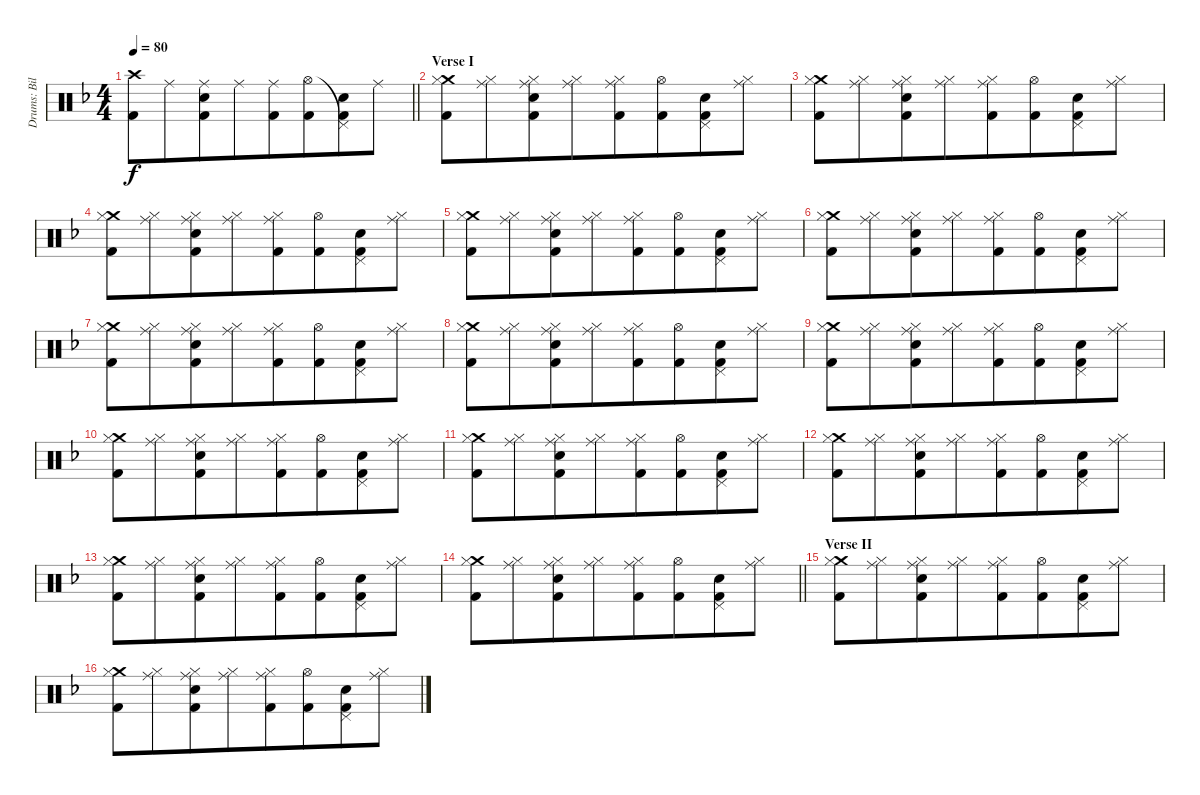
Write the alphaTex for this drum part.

\track ("Drums: Bill" "Drums: Bil") {instrument percussion}
\staff {score}
\articulation defaults
\ts (4 4)
\tempo 80
\clef neutral
\barLineRight lightlight
\ks f
("Crash high (hit)" "Kick (hit) 2").8{dy f} "Ride (middle)".8{beam merge} ("Ride (middle)" "Snare (hit) 2" "Kick (hit) 2").8 "Ride (middle)".8{beam merge} ("Ride (middle)" "Kick (hit) 2").8 ("Hi-Hat (open)" "Kick (hit) 2").8{beam merge} ("Pedal Hi-Hat (hit)"{t} "Snare (hit) 2" "Kick (hit) 2").8 "Ride (middle)".8 |
\section ("" "Verse I")
("Crash medium (hit)" "Hi-Hat (closed)" "Kick (hit) 2").8 ("Ride (middle)" "Hi-Hat (closed)").8{beam merge} ("Ride (middle)" "Hi-Hat (closed)" "Snare (hit) 2" "Kick (hit) 2").8 ("Ride (middle)" "Hi-Hat (closed)").8{beam merge} ("Ride (middle)" "Hi-Hat (closed)" "Kick (hit) 2").8 ("Hi-Hat (open)" "Kick (hit) 2").8{beam merge} ("Pedal Hi-Hat (hit)" "Snare (hit) 2" "Kick (hit) 2").8 ("Ride (middle)" "Hi-Hat (closed)").8 |
("Crash medium (hit)" "Hi-Hat (closed)" "Kick (hit) 2").8 ("Ride (middle)" "Hi-Hat (closed)").8{beam merge} ("Ride (middle)" "Hi-Hat (closed)" "Snare (hit) 2" "Kick (hit) 2").8 ("Ride (middle)" "Hi-Hat (closed)").8{beam merge} ("Ride (middle)" "Hi-Hat (closed)" "Kick (hit) 2").8 ("Hi-Hat (open)" "Kick (hit) 2").8{beam merge} ("Pedal Hi-Hat (hit)" "Snare (hit) 2" "Kick (hit) 2").8 ("Ride (middle)" "Hi-Hat (closed)").8 |
("Crash medium (hit)" "Hi-Hat (closed)" "Kick (hit) 2").8 ("Ride (middle)" "Hi-Hat (closed)").8{beam merge} ("Ride (middle)" "Hi-Hat (closed)" "Snare (hit) 2" "Kick (hit) 2").8 ("Ride (middle)" "Hi-Hat (closed)").8{beam merge} ("Ride (middle)" "Hi-Hat (closed)" "Kick (hit) 2").8 ("Hi-Hat (open)" "Kick (hit) 2").8{beam merge} ("Pedal Hi-Hat (hit)" "Snare (hit) 2" "Kick (hit) 2").8 ("Ride (middle)" "Hi-Hat (closed)").8 |
("Crash medium (hit)" "Hi-Hat (closed)" "Kick (hit) 2").8 ("Ride (middle)" "Hi-Hat (closed)").8{beam merge} ("Ride (middle)" "Hi-Hat (closed)" "Snare (hit) 2" "Kick (hit) 2").8 ("Ride (middle)" "Hi-Hat (closed)").8{beam merge} ("Ride (middle)" "Hi-Hat (closed)" "Kick (hit) 2").8 ("Hi-Hat (open)" "Kick (hit) 2").8{beam merge} ("Pedal Hi-Hat (hit)" "Snare (hit) 2" "Kick (hit) 2").8 ("Ride (middle)" "Hi-Hat (closed)").8 |
("Crash medium (hit)" "Hi-Hat (closed)" "Kick (hit) 2").8 ("Ride (middle)" "Hi-Hat (closed)").8{beam merge} ("Ride (middle)" "Hi-Hat (closed)" "Snare (hit) 2" "Kick (hit) 2").8 ("Ride (middle)" "Hi-Hat (closed)").8{beam merge} ("Ride (middle)" "Hi-Hat (closed)" "Kick (hit) 2").8 ("Hi-Hat (open)" "Kick (hit) 2").8{beam merge} ("Pedal Hi-Hat (hit)" "Snare (hit) 2" "Kick (hit) 2").8 ("Ride (middle)" "Hi-Hat (closed)").8 |
("Crash medium (hit)" "Hi-Hat (closed)" "Kick (hit) 2").8 ("Ride (middle)" "Hi-Hat (closed)").8{beam merge} ("Ride (middle)" "Hi-Hat (closed)" "Snare (hit) 2" "Kick (hit) 2").8 ("Ride (middle)" "Hi-Hat (closed)").8{beam merge} ("Ride (middle)" "Hi-Hat (closed)" "Kick (hit) 2").8 ("Hi-Hat (open)" "Kick (hit) 2").8{beam merge} ("Pedal Hi-Hat (hit)" "Snare (hit) 2" "Kick (hit) 2").8 ("Ride (middle)" "Hi-Hat (closed)").8 |
("Crash medium (hit)" "Hi-Hat (closed)" "Kick (hit) 2").8 ("Ride (middle)" "Hi-Hat (closed)").8{beam merge} ("Ride (middle)" "Hi-Hat (closed)" "Snare (hit) 2" "Kick (hit) 2").8 ("Ride (middle)" "Hi-Hat (closed)").8{beam merge} ("Ride (middle)" "Hi-Hat (closed)" "Kick (hit) 2").8 ("Hi-Hat (open)" "Kick (hit) 2").8{beam merge} ("Pedal Hi-Hat (hit)" "Snare (hit) 2" "Kick (hit) 2").8 ("Ride (middle)" "Hi-Hat (closed)").8 |
("Crash medium (hit)" "Hi-Hat (closed)" "Kick (hit) 2").8 ("Ride (middle)" "Hi-Hat (closed)").8{beam merge} ("Ride (middle)" "Hi-Hat (closed)" "Snare (hit) 2" "Kick (hit) 2").8 ("Ride (middle)" "Hi-Hat (closed)").8{beam merge} ("Ride (middle)" "Hi-Hat (closed)" "Kick (hit) 2").8 ("Hi-Hat (open)" "Kick (hit) 2").8{beam merge} ("Pedal Hi-Hat (hit)" "Snare (hit) 2" "Kick (hit) 2").8 ("Ride (middle)" "Hi-Hat (closed)").8 |
("Crash medium (hit)" "Hi-Hat (closed)" "Kick (hit) 2").8 ("Ride (middle)" "Hi-Hat (closed)").8{beam merge} ("Ride (middle)" "Hi-Hat (closed)" "Snare (hit) 2" "Kick (hit) 2").8 ("Ride (middle)" "Hi-Hat (closed)").8{beam merge} ("Ride (middle)" "Hi-Hat (closed)" "Kick (hit) 2").8 ("Hi-Hat (open)" "Kick (hit) 2").8{beam merge} ("Pedal Hi-Hat (hit)" "Snare (hit) 2" "Kick (hit) 2").8 ("Ride (middle)" "Hi-Hat (closed)").8 |
("Crash medium (hit)" "Hi-Hat (closed)" "Kick (hit) 2").8 ("Ride (middle)" "Hi-Hat (closed)").8{beam merge} ("Ride (middle)" "Hi-Hat (closed)" "Snare (hit) 2" "Kick (hit) 2").8 ("Ride (middle)" "Hi-Hat (closed)").8{beam merge} ("Ride (middle)" "Hi-Hat (closed)" "Kick (hit) 2").8 ("Hi-Hat (open)" "Kick (hit) 2").8{beam merge} ("Pedal Hi-Hat (hit)" "Snare (hit) 2" "Kick (hit) 2").8 ("Ride (middle)" "Hi-Hat (closed)").8 |
("Crash medium (hit)" "Hi-Hat (closed)" "Kick (hit) 2").8 ("Ride (middle)" "Hi-Hat (closed)").8{beam merge} ("Ride (middle)" "Hi-Hat (closed)" "Snare (hit) 2" "Kick (hit) 2").8 ("Ride (middle)" "Hi-Hat (closed)").8{beam merge} ("Ride (middle)" "Hi-Hat (closed)" "Kick (hit) 2").8 ("Hi-Hat (open)" "Kick (hit) 2").8{beam merge} ("Pedal Hi-Hat (hit)" "Snare (hit) 2" "Kick (hit) 2").8 ("Ride (middle)" "Hi-Hat (closed)").8 |
("Crash medium (hit)" "Hi-Hat (closed)" "Kick (hit) 2").8 ("Ride (middle)" "Hi-Hat (closed)").8{beam merge} ("Ride (middle)" "Hi-Hat (closed)" "Snare (hit) 2" "Kick (hit) 2").8 ("Ride (middle)" "Hi-Hat (closed)").8{beam merge} ("Ride (middle)" "Hi-Hat (closed)" "Kick (hit) 2").8 ("Hi-Hat (open)" "Kick (hit) 2").8{beam merge} ("Pedal Hi-Hat (hit)" "Snare (hit) 2" "Kick (hit) 2").8 ("Ride (middle)" "Hi-Hat (closed)").8 |
\barLineRight lightlight
("Crash medium (hit)" "Hi-Hat (closed)" "Kick (hit) 2").8 ("Ride (middle)" "Hi-Hat (closed)").8{beam merge} ("Ride (middle)" "Hi-Hat (closed)" "Snare (hit) 2" "Kick (hit) 2").8 ("Ride (middle)" "Hi-Hat (closed)").8{beam merge} ("Ride (middle)" "Hi-Hat (closed)" "Kick (hit) 2").8 ("Hi-Hat (open)" "Kick (hit) 2").8{beam merge} ("Pedal Hi-Hat (hit)" "Snare (hit) 2" "Kick (hit) 2").8 ("Ride (middle)" "Hi-Hat (closed)").8 |
\section ("" "Verse II")
("Crash medium (hit)" "Hi-Hat (closed)" "Kick (hit) 2").8 ("Ride (middle)" "Hi-Hat (closed)").8{beam merge} ("Ride (middle)" "Hi-Hat (closed)" "Snare (hit) 2" "Kick (hit) 2").8 ("Ride (middle)" "Hi-Hat (closed)").8{beam merge} ("Ride (middle)" "Hi-Hat (closed)" "Kick (hit) 2").8 ("Hi-Hat (open)" "Kick (hit) 2").8{beam merge} ("Pedal Hi-Hat (hit)" "Snare (hit) 2" "Kick (hit) 2").8 ("Ride (middle)" "Hi-Hat (closed)").8 |
("Crash medium (hit)" "Hi-Hat (closed)" "Kick (hit) 2").8 ("Ride (middle)" "Hi-Hat (closed)").8{beam merge} ("Ride (middle)" "Hi-Hat (closed)" "Snare (hit) 2" "Kick (hit) 2").8 ("Ride (middle)" "Hi-Hat (closed)").8{beam merge} ("Ride (middle)" "Hi-Hat (closed)" "Kick (hit) 2").8 ("Hi-Hat (open)" "Kick (hit) 2").8{beam merge} ("Pedal Hi-Hat (hit)" "Snare (hit) 2" "Kick (hit) 2").8 ("Ride (middle)" "Hi-Hat (closed)").8
